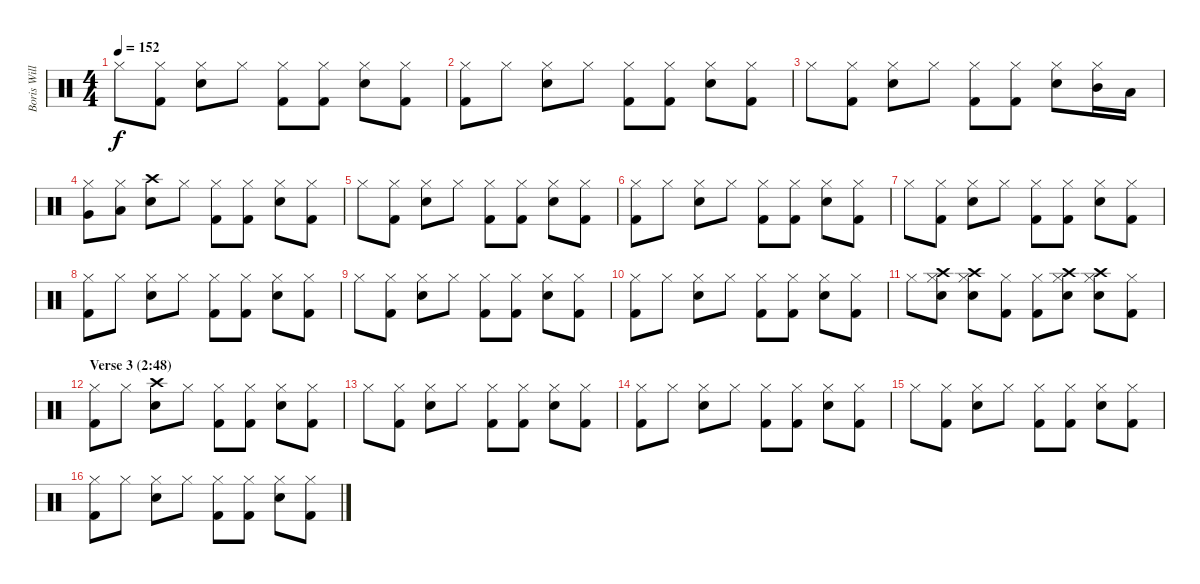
\track ("Boris Williams (drums)" "Boris Will") {instrument percussion}
\staff {score}
\articulation defaults
\ts (4 4)
\tempo 152
\clef neutral
\ks c "Hi-Hat (closed)".8{dy f}
("Kick (hit) 2" "Hi-Hat (closed)").8 ("Snare (hit) 2" "Hi-Hat (closed)").8 "Hi-Hat (closed)".8 ("Kick (hit) 2" "Hi-Hat (closed)").8 ("Kick (hit) 2" "Hi-Hat (closed)").8 ("Snare (hit) 2" "Hi-Hat (closed)").8 ("Kick (hit) 2" "Hi-Hat (closed)").8 |
("Kick (hit) 2" "Hi-Hat (closed)").8 "Hi-Hat (closed)".8 ("Snare (hit) 2" "Hi-Hat (closed)").8 "Hi-Hat (closed)".8 ("Kick (hit) 2" "Hi-Hat (closed)").8 ("Kick (hit) 2" "Hi-Hat (closed)").8 ("Snare (hit) 2" "Hi-Hat (closed)").8 ("Kick (hit) 2" "Hi-Hat (closed)").8 |
"Hi-Hat (closed)".8 ("Kick (hit) 2" "Hi-Hat (closed)").8 ("Snare (hit) 2" "Hi-Hat (closed)").8 "Hi-Hat (closed)".8 ("Kick (hit) 2" "Hi-Hat (closed)").8 ("Kick (hit) 2" "Hi-Hat (closed)").8 ("Snare (hit) 2" "Hi-Hat (closed)").8 ("Mid Tom (hit)" "Hi-Hat (closed)").16 "Low Tom (hit)".16 |
("Very Low Tom (hit)" "Hi-Hat (closed)").8 ("Low Floor Tom (hit)" "Hi-Hat (closed)").8 ("Snare (hit) 2" "Crash high (hit)").8 "Hi-Hat (closed)".8 ("Kick (hit) 2" "Hi-Hat (closed)").8 ("Kick (hit) 2" "Hi-Hat (closed)").8 ("Snare (hit) 2" "Hi-Hat (closed)").8 ("Kick (hit) 2" "Hi-Hat (closed)").8 |
"Hi-Hat (closed)".8 ("Kick (hit) 2" "Hi-Hat (closed)").8 ("Snare (hit) 2" "Hi-Hat (closed)").8 "Hi-Hat (closed)".8 ("Kick (hit) 2" "Hi-Hat (closed)").8 ("Kick (hit) 2" "Hi-Hat (closed)").8 ("Snare (hit) 2" "Hi-Hat (closed)").8 ("Kick (hit) 2" "Hi-Hat (closed)").8 |
("Kick (hit) 2" "Hi-Hat (closed)").8 "Hi-Hat (closed)".8 ("Snare (hit) 2" "Hi-Hat (closed)").8 "Hi-Hat (closed)".8 ("Kick (hit) 2" "Hi-Hat (closed)").8 ("Kick (hit) 2" "Hi-Hat (closed)").8 ("Snare (hit) 2" "Hi-Hat (closed)").8 ("Kick (hit) 2" "Hi-Hat (closed)").8 |
"Hi-Hat (closed)".8 ("Kick (hit) 2" "Hi-Hat (closed)").8 ("Snare (hit) 2" "Hi-Hat (closed)").8 "Hi-Hat (closed)".8 ("Kick (hit) 2" "Hi-Hat (closed)").8 ("Kick (hit) 2" "Hi-Hat (closed)").8 ("Snare (hit) 2" "Hi-Hat (closed)").8 ("Kick (hit) 2" "Hi-Hat (closed)").8 |
("Kick (hit) 2" "Hi-Hat (closed)").8 "Hi-Hat (closed)".8 ("Snare (hit) 2" "Hi-Hat (closed)").8 "Hi-Hat (closed)".8 ("Kick (hit) 2" "Hi-Hat (closed)").8 ("Kick (hit) 2" "Hi-Hat (closed)").8 ("Snare (hit) 2" "Hi-Hat (closed)").8 ("Kick (hit) 2" "Hi-Hat (closed)").8 |
"Hi-Hat (closed)".8 ("Kick (hit) 2" "Hi-Hat (closed)").8 ("Snare (hit) 2" "Hi-Hat (closed)").8 "Hi-Hat (closed)".8 ("Kick (hit) 2" "Hi-Hat (closed)").8 ("Kick (hit) 2" "Hi-Hat (closed)").8 ("Snare (hit) 2" "Hi-Hat (closed)").8 ("Kick (hit) 2" "Hi-Hat (closed)").8 |
("Kick (hit) 2" "Hi-Hat (closed)").8 "Hi-Hat (closed)".8 ("Snare (hit) 2" "Hi-Hat (closed)").8 "Hi-Hat (closed)".8 ("Kick (hit) 2" "Hi-Hat (closed)").8 ("Kick (hit) 2" "Hi-Hat (closed)").8 ("Snare (hit) 2" "Hi-Hat (closed)").8 ("Kick (hit) 2" "Hi-Hat (closed)").8 |
"Hi-Hat (closed)".8 ("Crash high (hit)" "Snare (hit) 2" "Hi-Hat (closed)").8 ("Crash high (hit)" "Snare (hit) 2" "Hi-Hat (closed)").8 ("Kick (hit) 2" "Hi-Hat (closed)").8 ("Kick (hit) 2" "Hi-Hat (closed)").8 ("Crash high (hit)" "Snare (hit) 2" "Hi-Hat (closed)").8 ("Crash high (hit)" "Snare (hit) 2" "Hi-Hat (closed)").8 ("Kick (hit) 2" "Hi-Hat (closed)").8 |
\section ("" "Verse 3 (2:48)")
("Kick (hit) 2" "Hi-Hat (closed)").8 "Hi-Hat (closed)".8 ("Snare (hit) 2" "Crash high (hit)").8 "Hi-Hat (closed)".8 ("Kick (hit) 2" "Hi-Hat (closed)").8 ("Kick (hit) 2" "Hi-Hat (closed)").8 ("Snare (hit) 2" "Hi-Hat (closed)").8 ("Kick (hit) 2" "Hi-Hat (closed)").8 |
"Hi-Hat (closed)".8 ("Kick (hit) 2" "Hi-Hat (closed)").8 ("Snare (hit) 2" "Hi-Hat (closed)").8 "Hi-Hat (closed)".8 ("Kick (hit) 2" "Hi-Hat (closed)").8 ("Kick (hit) 2" "Hi-Hat (closed)").8 ("Snare (hit) 2" "Hi-Hat (closed)").8 ("Kick (hit) 2" "Hi-Hat (closed)").8 |
("Kick (hit) 2" "Hi-Hat (closed)").8 "Hi-Hat (closed)".8 ("Snare (hit) 2" "Hi-Hat (closed)").8 "Hi-Hat (closed)".8 ("Kick (hit) 2" "Hi-Hat (closed)").8 ("Kick (hit) 2" "Hi-Hat (closed)").8 ("Snare (hit) 2" "Hi-Hat (closed)").8 ("Kick (hit) 2" "Hi-Hat (closed)").8 |
"Hi-Hat (closed)".8 ("Kick (hit) 2" "Hi-Hat (closed)").8 ("Snare (hit) 2" "Hi-Hat (closed)").8 "Hi-Hat (closed)".8 ("Kick (hit) 2" "Hi-Hat (closed)").8 ("Kick (hit) 2" "Hi-Hat (closed)").8 ("Snare (hit) 2" "Hi-Hat (closed)").8 ("Kick (hit) 2" "Hi-Hat (closed)").8 |
("Kick (hit) 2" "Hi-Hat (closed)").8 "Hi-Hat (closed)".8 ("Snare (hit) 2" "Hi-Hat (closed)").8 "Hi-Hat (closed)".8 ("Kick (hit) 2" "Hi-Hat (closed)").8 ("Kick (hit) 2" "Hi-Hat (closed)").8 ("Snare (hit) 2" "Hi-Hat (closed)").8 ("Kick (hit) 2" "Hi-Hat (closed)").8
